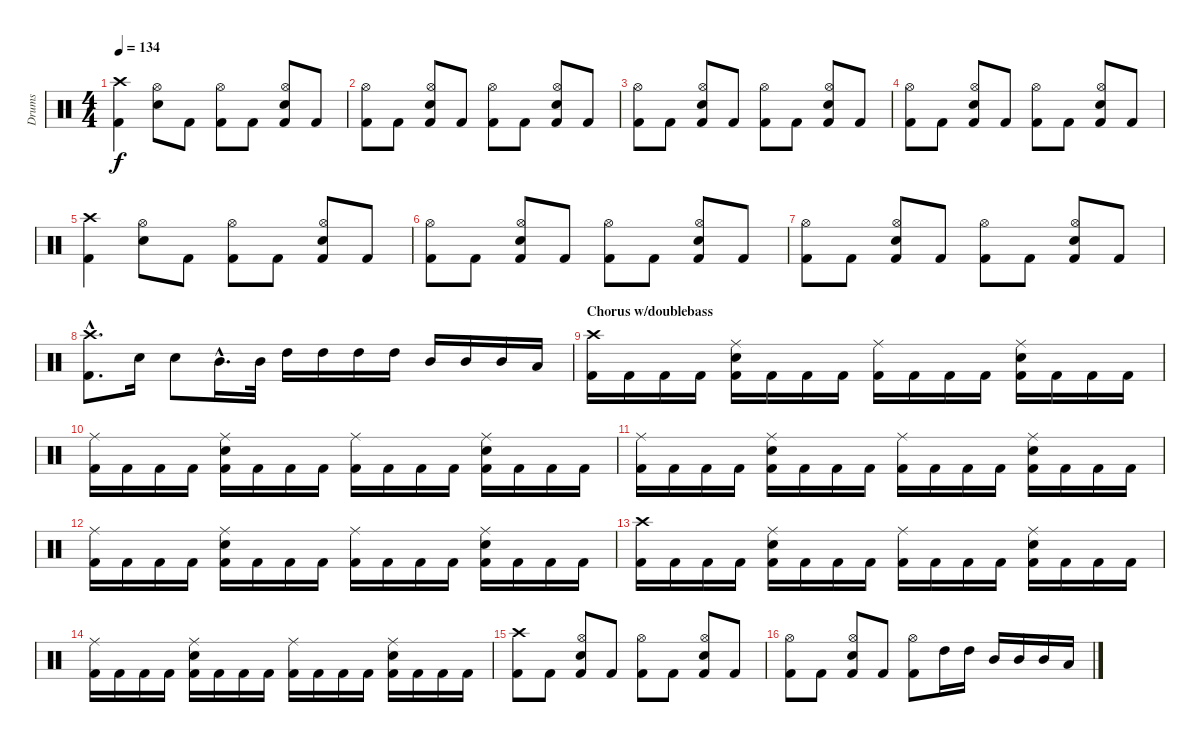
\track ("Drums" "Drums") {instrument percussion}
\staff {score}
\articulation defaults
\ts (4 4)
\section ("" "")
\tempo 134
\clef neutral
\ks c
("Crash high (hit)" "Kick (hit) 2").4{dy f} ("Hi-Hat (open)" "Snare (hit) 2").8 "Kick (hit) 2".8 ("Hi-Hat (open)" "Kick (hit) 2").8 "Kick (hit) 2".8 ("Hi-Hat (open)" "Snare (hit) 2" "Kick (hit) 2").8 "Kick (hit) 2".8 |
("Hi-Hat (open)" "Kick (hit) 2").8 "Kick (hit) 2".8 ("Hi-Hat (open)" "Snare (hit) 2" "Kick (hit) 2").8 "Kick (hit) 2".8 ("Hi-Hat (open)" "Kick (hit) 2").8 "Kick (hit) 2".8 ("Hi-Hat (open)" "Snare (hit) 2" "Kick (hit) 2").8 "Kick (hit) 2".8 |
("Hi-Hat (open)" "Kick (hit) 2").8 "Kick (hit) 2".8 ("Hi-Hat (open)" "Snare (hit) 2" "Kick (hit) 2").8 "Kick (hit) 2".8 ("Hi-Hat (open)" "Kick (hit) 2").8 "Kick (hit) 2".8 ("Hi-Hat (open)" "Snare (hit) 2" "Kick (hit) 2").8 "Kick (hit) 2".8 |
("Hi-Hat (open)" "Kick (hit) 2").8 "Kick (hit) 2".8 ("Hi-Hat (open)" "Snare (hit) 2" "Kick (hit) 2").8 "Kick (hit) 2".8 ("Hi-Hat (open)" "Kick (hit) 2").8 "Kick (hit) 2".8 ("Hi-Hat (open)" "Snare (hit) 2" "Kick (hit) 2").8 "Kick (hit) 2".8 |
("Crash high (hit)" "Kick (hit) 2").4 ("Hi-Hat (open)" "Snare (hit) 2").8 "Kick (hit) 2".8 ("Hi-Hat (open)" "Kick (hit) 2").8 "Kick (hit) 2".8 ("Hi-Hat (open)" "Snare (hit) 2" "Kick (hit) 2").8 "Kick (hit) 2".8 |
("Hi-Hat (open)" "Kick (hit) 2").8 "Kick (hit) 2".8 ("Hi-Hat (open)" "Snare (hit) 2" "Kick (hit) 2").8 "Kick (hit) 2".8 ("Hi-Hat (open)" "Kick (hit) 2").8 "Kick (hit) 2".8 ("Hi-Hat (open)" "Snare (hit) 2" "Kick (hit) 2").8 "Kick (hit) 2".8 |
("Hi-Hat (open)" "Kick (hit) 2").8 "Kick (hit) 2".8 ("Hi-Hat (open)" "Snare (hit) 2" "Kick (hit) 2").8 "Kick (hit) 2".8 ("Hi-Hat (open)" "Kick (hit) 2").8 "Kick (hit) 2".8 ("Hi-Hat (open)" "Snare (hit) 2" "Kick (hit) 2").8 "Kick (hit) 2".8 |
("Crash high (hit)"{hac} "Kick (hit) 2"{hac}).8{d} "Snare (hit) 2".16 "Snare (hit) 2".8 "Mid Tom (hit)"{hac}.16{d} "Mid Tom (hit)".32 "High Tom (hit)".16 "High Tom (hit)".16 "High Tom (hit)".16 "High Tom (hit)".16 "Mid Tom (hit)".16 "Mid Tom (hit)".16 "Mid Tom (hit)".16 "Low Tom (hit)".16 |
\section ("" "Chorus w/doublebass")
("Crash high (hit)" "Kick (hit) 2").16 "Kick (hit) 2".16 "Kick (hit) 2".16 "Kick (hit) 2".16 ("Ride (middle)" "Snare (hit) 2" "Kick (hit) 2").16 "Kick (hit) 2".16 "Kick (hit) 2".16 "Kick (hit) 2".16 ("Ride (middle)" "Kick (hit) 2").16 "Kick (hit) 2".16 "Kick (hit) 2".16 "Kick (hit) 2".16 ("Ride (middle)" "Snare (hit) 2" "Kick (hit) 2").16 "Kick (hit) 2".16 "Kick (hit) 2".16 "Kick (hit) 2".16 |
("Ride (middle)" "Kick (hit) 2").16 "Kick (hit) 2".16 "Kick (hit) 2".16 "Kick (hit) 2".16 ("Ride (middle)" "Snare (hit) 2" "Kick (hit) 2").16 "Kick (hit) 2".16 "Kick (hit) 2".16 "Kick (hit) 2".16 ("Ride (middle)" "Kick (hit) 2").16 "Kick (hit) 2".16 "Kick (hit) 2".16 "Kick (hit) 2".16 ("Ride (middle)" "Snare (hit) 2" "Kick (hit) 2").16 "Kick (hit) 2".16 "Kick (hit) 2".16 "Kick (hit) 2".16 |
("Ride (middle)" "Kick (hit) 2").16 "Kick (hit) 2".16 "Kick (hit) 2".16 "Kick (hit) 2".16 ("Ride (middle)" "Snare (hit) 2" "Kick (hit) 2").16 "Kick (hit) 2".16 "Kick (hit) 2".16 "Kick (hit) 2".16 ("Ride (middle)" "Kick (hit) 2").16 "Kick (hit) 2".16 "Kick (hit) 2".16 "Kick (hit) 2".16 ("Ride (middle)" "Snare (hit) 2" "Kick (hit) 2").16 "Kick (hit) 2".16 "Kick (hit) 2".16 "Kick (hit) 2".16 |
("Ride (middle)" "Kick (hit) 2").16 "Kick (hit) 2".16 "Kick (hit) 2".16 "Kick (hit) 2".16 ("Ride (middle)" "Snare (hit) 2" "Kick (hit) 2").16 "Kick (hit) 2".16 "Kick (hit) 2".16 "Kick (hit) 2".16 ("Ride (middle)" "Kick (hit) 2").16 "Kick (hit) 2".16 "Kick (hit) 2".16 "Kick (hit) 2".16 ("Ride (middle)" "Snare (hit) 2" "Kick (hit) 2").16 "Kick (hit) 2".16 "Kick (hit) 2".16 "Kick (hit) 2".16 |
("Crash high (hit)" "Kick (hit) 2").16 "Kick (hit) 2".16 "Kick (hit) 2".16 "Kick (hit) 2".16 ("Ride (middle)" "Snare (hit) 2" "Kick (hit) 2").16 "Kick (hit) 2".16 "Kick (hit) 2".16 "Kick (hit) 2".16 ("Ride (middle)" "Kick (hit) 2").16 "Kick (hit) 2".16 "Kick (hit) 2".16 "Kick (hit) 2".16 ("Ride (middle)" "Snare (hit) 2" "Kick (hit) 2").16 "Kick (hit) 2".16 "Kick (hit) 2".16 "Kick (hit) 2".16 |
("Ride (middle)" "Kick (hit) 2").16 "Kick (hit) 2".16 "Kick (hit) 2".16 "Kick (hit) 2".16 ("Ride (middle)" "Snare (hit) 2" "Kick (hit) 2").16 "Kick (hit) 2".16 "Kick (hit) 2".16 "Kick (hit) 2".16 ("Ride (middle)" "Kick (hit) 2").16 "Kick (hit) 2".16 "Kick (hit) 2".16 "Kick (hit) 2".16 ("Ride (middle)" "Snare (hit) 2" "Kick (hit) 2").16 "Kick (hit) 2".16 "Kick (hit) 2".16 "Kick (hit) 2".16 |
("Crash high (hit)" "Kick (hit) 2").8 "Kick (hit) 2".8 ("Hi-Hat (open)" "Snare (hit) 2" "Kick (hit) 2").8 "Kick (hit) 2".8 ("Hi-Hat (open)" "Kick (hit) 2").8 "Kick (hit) 2".8 ("Hi-Hat (open)" "Snare (hit) 2" "Kick (hit) 2").8 "Kick (hit) 2".8 |
("Hi-Hat (open)" "Kick (hit) 2").8 "Kick (hit) 2".8 ("Hi-Hat (open)" "Snare (hit) 2" "Kick (hit) 2").8 "Kick (hit) 2".8 ("Hi-Hat (open)" "Kick (hit) 2").8 "High Tom (hit)".16 "High Tom (hit)".16 "Mid Tom (hit)".16 "Mid Tom (hit)".16 "Mid Tom (hit)".16 "Low Tom (hit)".16
